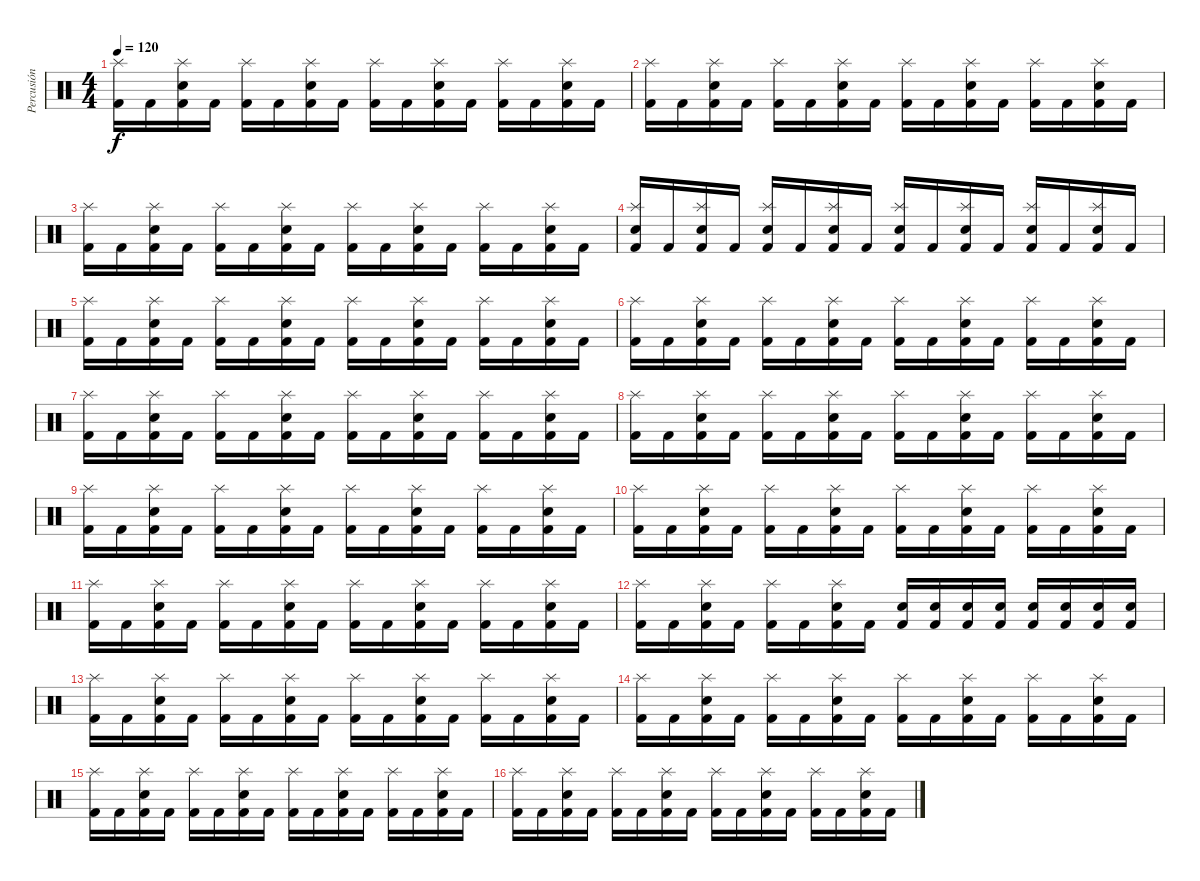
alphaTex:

\track ("Percusión" "Percusión") {instrument percussion}
\staff {score}
\articulation defaults
\ts (4 4)
\tempo 120
\clef neutral
\ks c
("Kick (hit) 2" "Splash (hit)").16{dy f} "Kick (hit) 2".16 ("Kick (hit) 2" "Splash (hit)" "Electric Snare (hit)").16 "Kick (hit) 2".16 ("Kick (hit) 2" "Splash (hit)").16 "Kick (hit) 2".16 ("Kick (hit) 2" "Splash (hit)" "Electric Snare (hit)").16 "Kick (hit) 2".16 ("Kick (hit) 2" "Splash (hit)").16 "Kick (hit) 2".16 ("Kick (hit) 2" "Splash (hit)" "Electric Snare (hit)").16 "Kick (hit) 2".16 ("Kick (hit) 2" "Splash (hit)").16 "Kick (hit) 2".16 ("Kick (hit) 2" "Splash (hit)" "Electric Snare (hit)").16 "Kick (hit) 2".16 |
("Kick (hit) 2" "Splash (hit)").16 "Kick (hit) 2".16 ("Kick (hit) 2" "Splash (hit)" "Electric Snare (hit)").16 "Kick (hit) 2".16 ("Kick (hit) 2" "Splash (hit)").16 "Kick (hit) 2".16 ("Kick (hit) 2" "Splash (hit)" "Electric Snare (hit)").16 "Kick (hit) 2".16 ("Kick (hit) 2" "Splash (hit)").16 "Kick (hit) 2".16 ("Kick (hit) 2" "Splash (hit)" "Electric Snare (hit)").16 "Kick (hit) 2".16 ("Kick (hit) 2" "Splash (hit)").16 "Kick (hit) 2".16 ("Kick (hit) 2" "Splash (hit)" "Electric Snare (hit)").16 "Kick (hit) 2".16 |
("Kick (hit) 2" "Splash (hit)").16 "Kick (hit) 2".16 ("Kick (hit) 2" "Splash (hit)" "Electric Snare (hit)").16 "Kick (hit) 2".16 ("Kick (hit) 2" "Splash (hit)").16 "Kick (hit) 2".16 ("Kick (hit) 2" "Splash (hit)" "Electric Snare (hit)").16 "Kick (hit) 2".16 ("Kick (hit) 2" "Splash (hit)").16 "Kick (hit) 2".16 ("Kick (hit) 2" "Splash (hit)" "Electric Snare (hit)").16 "Kick (hit) 2".16 ("Kick (hit) 2" "Splash (hit)").16 "Kick (hit) 2".16 ("Kick (hit) 2" "Splash (hit)" "Electric Snare (hit)").16 "Kick (hit) 2".16 |
("Kick (hit) 2" "Splash (hit)" "Electric Snare (hit)").16 "Kick (hit) 2".16 ("Kick (hit) 2" "Splash (hit)" "Electric Snare (hit)").16 "Kick (hit) 2".16 ("Kick (hit) 2" "Splash (hit)" "Electric Snare (hit)").16 "Kick (hit) 2".16 ("Kick (hit) 2" "Splash (hit)" "Electric Snare (hit)").16 "Kick (hit) 2".16 ("Kick (hit) 2" "Splash (hit)" "Electric Snare (hit)").16 "Kick (hit) 2".16 ("Kick (hit) 2" "Splash (hit)" "Electric Snare (hit)").16 "Kick (hit) 2".16 ("Kick (hit) 2" "Splash (hit)" "Electric Snare (hit)").16 "Kick (hit) 2".16 ("Kick (hit) 2" "Splash (hit)" "Electric Snare (hit)").16 "Kick (hit) 2".16 |
("Kick (hit) 2" "Splash (hit)").16 "Kick (hit) 2".16 ("Kick (hit) 2" "Splash (hit)" "Electric Snare (hit)").16 "Kick (hit) 2".16 ("Kick (hit) 2" "Splash (hit)").16 "Kick (hit) 2".16 ("Kick (hit) 2" "Splash (hit)" "Electric Snare (hit)").16 "Kick (hit) 2".16 ("Kick (hit) 2" "Splash (hit)").16 "Kick (hit) 2".16 ("Kick (hit) 2" "Splash (hit)" "Electric Snare (hit)").16 "Kick (hit) 2".16 ("Kick (hit) 2" "Splash (hit)").16 "Kick (hit) 2".16 ("Kick (hit) 2" "Splash (hit)" "Electric Snare (hit)").16 "Kick (hit) 2".16 |
("Kick (hit) 2" "Splash (hit)").16 "Kick (hit) 2".16 ("Kick (hit) 2" "Splash (hit)" "Electric Snare (hit)").16 "Kick (hit) 2".16 ("Kick (hit) 2" "Splash (hit)").16 "Kick (hit) 2".16 ("Kick (hit) 2" "Splash (hit)" "Electric Snare (hit)").16 "Kick (hit) 2".16 ("Kick (hit) 2" "Splash (hit)").16 "Kick (hit) 2".16 ("Kick (hit) 2" "Splash (hit)" "Electric Snare (hit)").16 "Kick (hit) 2".16 ("Kick (hit) 2" "Splash (hit)").16 "Kick (hit) 2".16 ("Kick (hit) 2" "Splash (hit)" "Electric Snare (hit)").16 "Kick (hit) 2".16 |
("Kick (hit) 2" "Splash (hit)").16 "Kick (hit) 2".16 ("Kick (hit) 2" "Splash (hit)" "Electric Snare (hit)").16 "Kick (hit) 2".16 ("Kick (hit) 2" "Splash (hit)").16 "Kick (hit) 2".16 ("Kick (hit) 2" "Splash (hit)" "Electric Snare (hit)").16 "Kick (hit) 2".16 ("Kick (hit) 2" "Splash (hit)").16 "Kick (hit) 2".16 ("Kick (hit) 2" "Splash (hit)" "Electric Snare (hit)").16 "Kick (hit) 2".16 ("Kick (hit) 2" "Splash (hit)").16 "Kick (hit) 2".16 ("Kick (hit) 2" "Splash (hit)" "Electric Snare (hit)").16 "Kick (hit) 2".16 |
("Kick (hit) 2" "Splash (hit)").16 "Kick (hit) 2".16 ("Kick (hit) 2" "Splash (hit)" "Electric Snare (hit)").16 "Kick (hit) 2".16 ("Kick (hit) 2" "Splash (hit)").16 "Kick (hit) 2".16 ("Kick (hit) 2" "Splash (hit)" "Electric Snare (hit)").16 "Kick (hit) 2".16 ("Kick (hit) 2" "Splash (hit)").16 "Kick (hit) 2".16 ("Kick (hit) 2" "Splash (hit)" "Electric Snare (hit)").16 "Kick (hit) 2".16 ("Kick (hit) 2" "Splash (hit)").16 "Kick (hit) 2".16 ("Kick (hit) 2" "Splash (hit)" "Electric Snare (hit)").16 "Kick (hit) 2".16 |
("Kick (hit) 2" "Splash (hit)").16 "Kick (hit) 2".16 ("Kick (hit) 2" "Splash (hit)" "Electric Snare (hit)").16 "Kick (hit) 2".16 ("Kick (hit) 2" "Splash (hit)").16 "Kick (hit) 2".16 ("Kick (hit) 2" "Splash (hit)" "Electric Snare (hit)").16 "Kick (hit) 2".16 ("Kick (hit) 2" "Splash (hit)").16 "Kick (hit) 2".16 ("Kick (hit) 2" "Splash (hit)" "Electric Snare (hit)").16 "Kick (hit) 2".16 ("Kick (hit) 2" "Splash (hit)").16 "Kick (hit) 2".16 ("Kick (hit) 2" "Splash (hit)" "Electric Snare (hit)").16 "Kick (hit) 2".16 |
("Kick (hit) 2" "Splash (hit)").16 "Kick (hit) 2".16 ("Kick (hit) 2" "Splash (hit)" "Electric Snare (hit)").16 "Kick (hit) 2".16 ("Kick (hit) 2" "Splash (hit)").16 "Kick (hit) 2".16 ("Kick (hit) 2" "Splash (hit)" "Electric Snare (hit)").16 "Kick (hit) 2".16 ("Kick (hit) 2" "Splash (hit)").16 "Kick (hit) 2".16 ("Kick (hit) 2" "Splash (hit)" "Electric Snare (hit)").16 "Kick (hit) 2".16 ("Kick (hit) 2" "Splash (hit)").16 "Kick (hit) 2".16 ("Kick (hit) 2" "Splash (hit)" "Electric Snare (hit)").16 "Kick (hit) 2".16 |
("Kick (hit) 2" "Splash (hit)").16 "Kick (hit) 2".16 ("Kick (hit) 2" "Splash (hit)" "Electric Snare (hit)").16 "Kick (hit) 2".16 ("Kick (hit) 2" "Splash (hit)").16 "Kick (hit) 2".16 ("Kick (hit) 2" "Splash (hit)" "Electric Snare (hit)").16 "Kick (hit) 2".16 ("Kick (hit) 2" "Splash (hit)").16 "Kick (hit) 2".16 ("Kick (hit) 2" "Splash (hit)" "Electric Snare (hit)").16 "Kick (hit) 2".16 ("Kick (hit) 2" "Splash (hit)").16 "Kick (hit) 2".16 ("Kick (hit) 2" "Splash (hit)" "Electric Snare (hit)").16 "Kick (hit) 2".16 |
("Kick (hit) 2" "Splash (hit)").16 "Kick (hit) 2".16 ("Kick (hit) 2" "Splash (hit)" "Electric Snare (hit)").16 "Kick (hit) 2".16 ("Kick (hit) 2" "Splash (hit)").16 "Kick (hit) 2".16 ("Kick (hit) 2" "Splash (hit)" "Electric Snare (hit)").16 "Kick (hit) 2".16 ("Kick (hit) 2" "Electric Snare (hit)").16 ("Kick (hit) 2" "Electric Snare (hit)").16 ("Kick (hit) 2" "Electric Snare (hit)").16 ("Kick (hit) 2" "Electric Snare (hit)").16 ("Kick (hit) 2" "Electric Snare (hit)").16 ("Kick (hit) 2" "Electric Snare (hit)").16 ("Kick (hit) 2" "Electric Snare (hit)").16 ("Kick (hit) 2" "Electric Snare (hit)").16 |
("Kick (hit) 2" "Splash (hit)").16 "Kick (hit) 2".16 ("Kick (hit) 2" "Splash (hit)" "Electric Snare (hit)").16 "Kick (hit) 2".16 ("Kick (hit) 2" "Splash (hit)").16 "Kick (hit) 2".16 ("Kick (hit) 2" "Splash (hit)" "Electric Snare (hit)").16 "Kick (hit) 2".16 ("Kick (hit) 2" "Splash (hit)").16 "Kick (hit) 2".16 ("Kick (hit) 2" "Splash (hit)" "Electric Snare (hit)").16 "Kick (hit) 2".16 ("Kick (hit) 2" "Splash (hit)").16 "Kick (hit) 2".16 ("Kick (hit) 2" "Splash (hit)" "Electric Snare (hit)").16 "Kick (hit) 2".16 |
("Kick (hit) 2" "Splash (hit)").16 "Kick (hit) 2".16 ("Kick (hit) 2" "Splash (hit)" "Electric Snare (hit)").16 "Kick (hit) 2".16 ("Kick (hit) 2" "Splash (hit)").16 "Kick (hit) 2".16 ("Kick (hit) 2" "Splash (hit)" "Electric Snare (hit)").16 "Kick (hit) 2".16 ("Kick (hit) 2" "Splash (hit)").16 "Kick (hit) 2".16 ("Kick (hit) 2" "Splash (hit)" "Electric Snare (hit)").16 "Kick (hit) 2".16 ("Kick (hit) 2" "Splash (hit)").16 "Kick (hit) 2".16 ("Kick (hit) 2" "Splash (hit)" "Electric Snare (hit)").16 "Kick (hit) 2".16 |
("Kick (hit) 2" "Splash (hit)").16 "Kick (hit) 2".16 ("Kick (hit) 2" "Splash (hit)" "Electric Snare (hit)").16 "Kick (hit) 2".16 ("Kick (hit) 2" "Splash (hit)").16 "Kick (hit) 2".16 ("Kick (hit) 2" "Splash (hit)" "Electric Snare (hit)").16 "Kick (hit) 2".16 ("Kick (hit) 2" "Splash (hit)").16 "Kick (hit) 2".16 ("Kick (hit) 2" "Splash (hit)" "Electric Snare (hit)").16 "Kick (hit) 2".16 ("Kick (hit) 2" "Splash (hit)").16 "Kick (hit) 2".16 ("Kick (hit) 2" "Splash (hit)" "Electric Snare (hit)").16 "Kick (hit) 2".16 |
("Kick (hit) 2" "Splash (hit)").16 "Kick (hit) 2".16 ("Kick (hit) 2" "Splash (hit)" "Electric Snare (hit)").16 "Kick (hit) 2".16 ("Kick (hit) 2" "Splash (hit)").16 "Kick (hit) 2".16 ("Kick (hit) 2" "Splash (hit)" "Electric Snare (hit)").16 "Kick (hit) 2".16 ("Kick (hit) 2" "Splash (hit)").16 "Kick (hit) 2".16 ("Kick (hit) 2" "Splash (hit)" "Electric Snare (hit)").16 "Kick (hit) 2".16 ("Kick (hit) 2" "Splash (hit)").16 "Kick (hit) 2".16 ("Kick (hit) 2" "Splash (hit)" "Electric Snare (hit)").16 "Kick (hit) 2".16
